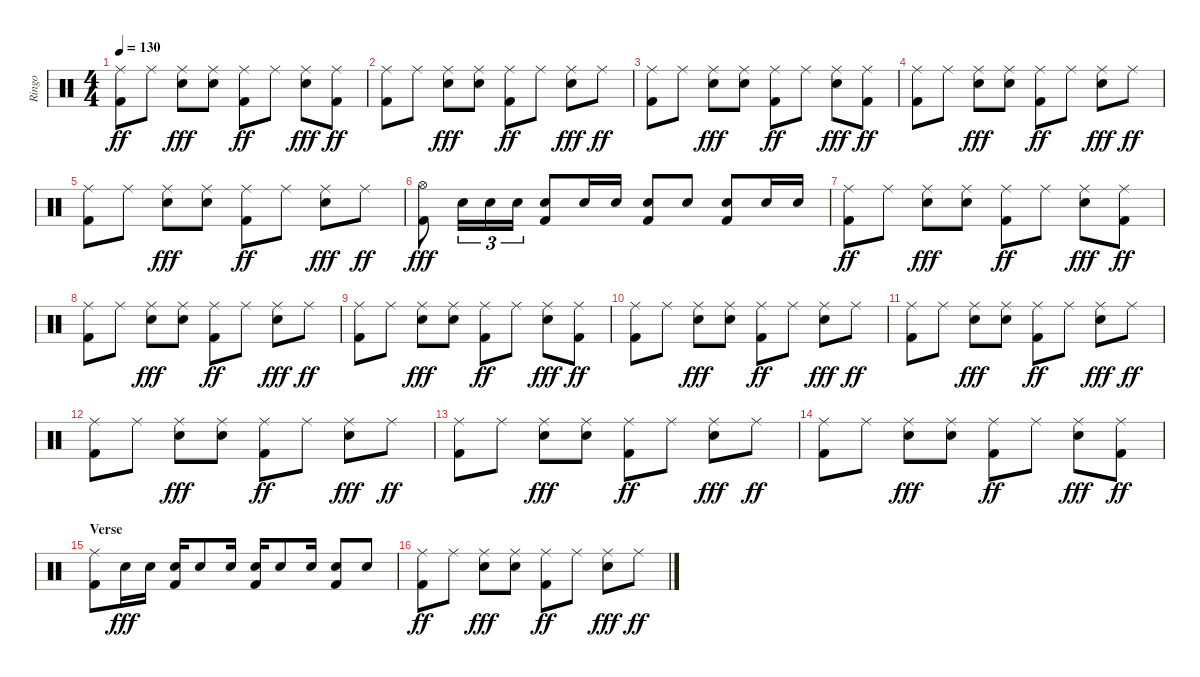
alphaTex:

\track ("Ringo" "Ringo") {instrument percussion}
\staff {score}
\articulation defaults
\ts (4 4)
\tempo 130
\clef neutral
\ks c
("Ride (middle)" "Kick (hit) 2").8{dy ff} "Ride (middle)".8 ("Ride (middle)" "Electric Snare (hit)").8{dy fff} ("Ride (middle)" "Electric Snare (hit)").8 ("Ride (middle)" "Kick (hit) 2").8{dy ff} "Ride (middle)".8 ("Ride (middle)" "Electric Snare (hit)").8{dy fff} ("Ride (middle)" "Kick (hit) 2").8{dy ff} |
("Ride (middle)" "Kick (hit) 2").8 "Ride (middle)".8 ("Ride (middle)" "Electric Snare (hit)").8{dy fff} ("Ride (middle)" "Electric Snare (hit)").8 ("Ride (middle)" "Kick (hit) 2").8{dy ff} "Ride (middle)".8 ("Ride (middle)" "Electric Snare (hit)").8{dy fff} "Ride (middle)".8{dy ff} |
("Ride (middle)" "Kick (hit) 2").8 "Ride (middle)".8 ("Ride (middle)" "Electric Snare (hit)").8{dy fff} ("Ride (middle)" "Electric Snare (hit)").8 ("Ride (middle)" "Kick (hit) 2").8{dy ff} "Ride (middle)".8 ("Ride (middle)" "Electric Snare (hit)").8{dy fff} ("Ride (middle)" "Kick (hit) 2").8{dy ff} |
("Ride (middle)" "Kick (hit) 2").8 "Ride (middle)".8 ("Ride (middle)" "Electric Snare (hit)").8{dy fff} ("Ride (middle)" "Electric Snare (hit)").8 ("Ride (middle)" "Kick (hit) 2").8{dy ff} "Ride (middle)".8 ("Ride (middle)" "Electric Snare (hit)").8{dy fff} "Ride (middle)".8{dy ff} |
("Ride (middle)" "Kick (hit) 2").8 "Ride (middle)".8 ("Ride (middle)" "Electric Snare (hit)").8{dy fff} ("Ride (middle)" "Electric Snare (hit)").8 ("Ride (middle)" "Kick (hit) 2").8{dy ff} "Ride (middle)".8 ("Ride (middle)" "Electric Snare (hit)").8{dy fff} "Ride (middle)".8{dy ff} |
("Hi-Hat (open)" "Kick (hit) 2").8{dy fff} "Electric Snare (hit)".16{tu (3 2)} "Electric Snare (hit)".16{tu (3 2)} "Electric Snare (hit)".16{tu (3 2)} ("Electric Snare (hit)" "Kick (hit) 2").8 "Electric Snare (hit)".16 "Electric Snare (hit)".16 ("Electric Snare (hit)" "Kick (hit) 2").8 "Electric Snare (hit)".8 ("Electric Snare (hit)" "Kick (hit) 2").8 "Electric Snare (hit)".16 "Electric Snare (hit)".16 |
("Ride (middle)" "Kick (hit) 2").8{dy ff} "Ride (middle)".8 ("Ride (middle)" "Electric Snare (hit)").8{dy fff} ("Ride (middle)" "Electric Snare (hit)").8 ("Ride (middle)" "Kick (hit) 2").8{dy ff} "Ride (middle)".8 ("Ride (middle)" "Electric Snare (hit)").8{dy fff} ("Ride (middle)" "Kick (hit) 2").8{dy ff} |
("Ride (middle)" "Kick (hit) 2").8 "Ride (middle)".8 ("Ride (middle)" "Electric Snare (hit)").8{dy fff} ("Ride (middle)" "Electric Snare (hit)").8 ("Ride (middle)" "Kick (hit) 2").8{dy ff} "Ride (middle)".8 ("Ride (middle)" "Electric Snare (hit)").8{dy fff} "Ride (middle)".8{dy ff} |
("Ride (middle)" "Kick (hit) 2").8 "Ride (middle)".8 ("Ride (middle)" "Electric Snare (hit)").8{dy fff} ("Ride (middle)" "Electric Snare (hit)").8 ("Ride (middle)" "Kick (hit) 2").8{dy ff} "Ride (middle)".8 ("Ride (middle)" "Electric Snare (hit)").8{dy fff} ("Ride (middle)" "Kick (hit) 2").8{dy ff} |
("Ride (middle)" "Kick (hit) 2").8 "Ride (middle)".8 ("Ride (middle)" "Electric Snare (hit)").8{dy fff} ("Ride (middle)" "Electric Snare (hit)").8 ("Ride (middle)" "Kick (hit) 2").8{dy ff} "Ride (middle)".8 ("Ride (middle)" "Electric Snare (hit)").8{dy fff} "Ride (middle)".8{dy ff} |
("Ride (middle)" "Kick (hit) 2").8 "Ride (middle)".8 ("Ride (middle)" "Electric Snare (hit)").8{dy fff} ("Ride (middle)" "Electric Snare (hit)").8 ("Ride (middle)" "Kick (hit) 2").8{dy ff} "Ride (middle)".8 ("Ride (middle)" "Electric Snare (hit)").8{dy fff} "Ride (middle)".8{dy ff} |
("Ride (middle)" "Kick (hit) 2").8 "Ride (middle)".8 ("Ride (middle)" "Electric Snare (hit)").8{dy fff} ("Ride (middle)" "Electric Snare (hit)").8 ("Ride (middle)" "Kick (hit) 2").8{dy ff} "Ride (middle)".8 ("Ride (middle)" "Electric Snare (hit)").8{dy fff} "Ride (middle)".8{dy ff} |
("Ride (middle)" "Kick (hit) 2").8 "Ride (middle)".8 ("Ride (middle)" "Electric Snare (hit)").8{dy fff} ("Ride (middle)" "Electric Snare (hit)").8 ("Ride (middle)" "Kick (hit) 2").8{dy ff} "Ride (middle)".8 ("Ride (middle)" "Electric Snare (hit)").8{dy fff} "Ride (middle)".8{dy ff} |
("Ride (middle)" "Kick (hit) 2").8 "Ride (middle)".8 ("Ride (middle)" "Electric Snare (hit)").8{dy fff} ("Ride (middle)" "Electric Snare (hit)").8 ("Ride (middle)" "Kick (hit) 2").8{dy ff} "Ride (middle)".8 ("Ride (middle)" "Electric Snare (hit)").8{dy fff} ("Ride (middle)" "Kick (hit) 2").8{dy ff} |
\section ("" "Verse")
("Ride (middle)" "Kick (hit) 2").8 "Electric Snare (hit)".16{dy fff} "Electric Snare (hit)".16 ("Electric Snare (hit)" "Kick (hit) 2").16 "Electric Snare (hit)".8 "Electric Snare (hit)".16 ("Electric Snare (hit)" "Kick (hit) 2").16 "Electric Snare (hit)".8 "Electric Snare (hit)".16 ("Electric Snare (hit)" "Kick (hit) 2").8 "Electric Snare (hit)".8 |
("Ride (middle)" "Kick (hit) 2").8{dy ff} "Ride (middle)".8 ("Ride (middle)" "Electric Snare (hit)").8{dy fff} ("Ride (middle)" "Electric Snare (hit)").8 ("Ride (middle)" "Kick (hit) 2").8{dy ff} "Ride (middle)".8 ("Ride (middle)" "Electric Snare (hit)").8{dy fff} "Ride (middle)".8{dy ff}
